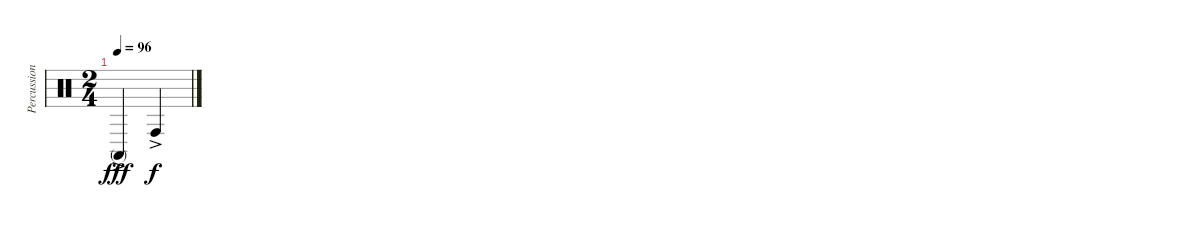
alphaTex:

\track ("Percussion" "Percussion") {instrument percussion}
\staff {score}
\articulation defaults
\ts (2 4)
\tempo 96
\clef neutral
\ks c "Conga high (mute)"{ac}.4{dy fff} "Conga high (hit)"{ac}.4{dy f}
